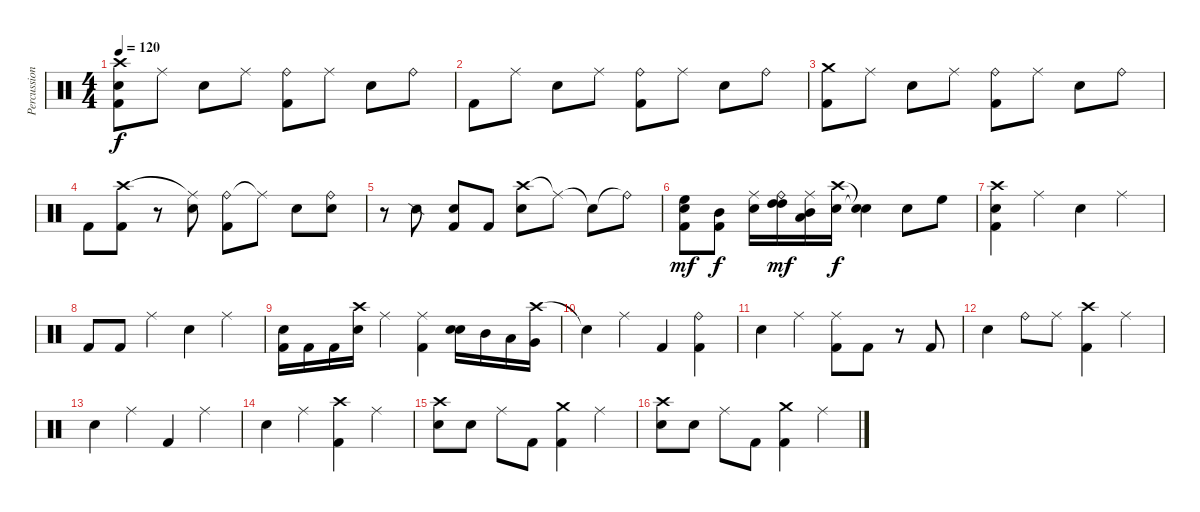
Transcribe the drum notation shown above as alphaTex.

\track ("Percussioni" "Percussion") {instrument percussion}
\staff {score}
\articulation defaults
\ts (4 4)
\tempo 120
\clef neutral
\ks c
("Crash high (hit)" "Electric Snare (hit)" "Kick (hit) 2").8{dy f} "Ride (middle)".8 "Electric Snare (hit)".8 "Ride (middle)".8 ("Ride (bell)" "Kick (hit) 2").8 "Ride (middle)".8 "Electric Snare (hit)".8 "Ride (bell)".8 |
"Kick (hit) 2".8 "Ride (middle)".8 "Electric Snare (hit)".8 "Ride (middle)".8 ("Ride (bell)" "Kick (hit) 2").8 "Ride (middle)".8 "Electric Snare (hit)".8 "Ride (bell)".8 |
("Crash medium (hit)" "Kick (hit) 2").8 "Ride (middle)".8 "Electric Snare (hit)".8 "Ride (middle)".8 ("Ride (bell)" "Kick (hit) 2").8 "Ride (middle)".8 "Electric Snare (hit)".8 "Ride (bell)".8 |
"Kick (hit) 2".8 ("Crash high (hit)" "Kick (hit) 2").8 r.8 ("Ride (middle)"{t} "Electric Snare (hit)").8 ("Ride (bell)" "Kick (hit) 2").8 "Ride (middle)"{t}.8 "Electric Snare (hit)".8 ("Ride (bell)" "Electric Snare (hit)").8 |
r.8 "Snare (side stick) 2".8 ("Electric Snare (hit)" "Kick (hit) 2").8{bd 240} "Kick (hit) 2".8 ("Crash high (hit)" "Electric Snare (hit)").8 "Ride (middle)"{t}.8 "Electric Snare (hit)"{t}.8 "Ride (bell)"{t}.8 |
("Electric Snare (hit)" "High Floor Tom (hit)" "Kick (hit) 2").8{bd 30 dy mf} ("Mid Tom (hit)" "Kick (hit) 2").8{bd 240 dy f} ("Electric Snare (hit)" "Ride (middle)").16 ("High Tom (hit)" "High Tom (hit)" "Ride (bell)").16{dy mf} ("Low Tom (hit)" "Mid Tom (hit)" "Ride (middle)").16 ("Crash high (hit)" "Electric Snare (hit)").16{dy f} ("Snare (hit)"{t} "Snare (hit)"{t}).4 "Electric Snare (hit)".8 "High Floor Tom (hit)".8 |
("Kick (hit) 2" "Crash high (hit)" "Electric Snare (hit)").4 "Ride (middle)".4 "Electric Snare (hit)".4 "Ride (middle)".4 |
"Kick (hit) 2".8 "Kick (hit) 2".8 "Ride (middle)".4 "Electric Snare (hit)".4 "Ride (middle)".4 |
("Electric Snare (hit)" "Kick (hit) 2").16 "Kick (hit) 2".16 "Kick (hit) 2".16 ("Crash high (hit)" "Electric Snare (hit)").16 "Ride (middle)".4 ("Ride (middle)" "Kick (hit) 2").4 ("Electric Snare (hit)" "Electric Snare (hit)").16{bd 120} "Mid Tom (hit)".16 "Low Tom (hit)".16 ("Crash high (hit)" "Very Low Tom (hit)").16 |
"Electric Snare (hit)"{t}.4 "Ride (middle)".4 "Kick (hit) 2".4 ("Ride (bell)" "Kick (hit) 2").4 |
"Electric Snare (hit)".4 "Ride (middle)".4 ("Ride (middle)" "Kick (hit) 2").8 "Kick (hit) 2".8 r.8 "Kick (hit) 2".8 |
"Electric Snare (hit)".4 "Ride (bell)".8 "Ride (middle)".8 ("Crash high (hit)" "Kick (hit) 2").4 "Ride (middle)".4 |
"Electric Snare (hit)".4 "Ride (middle)".4 "Kick (hit) 2".4 "Ride (middle)".4 |
"Electric Snare (hit)".4 "Ride (middle)".4 ("Crash high (hit)" "Kick (hit) 2").4 "Ride (middle)".4 |
("Crash high (hit)" "Electric Snare (hit)").8 "Electric Snare (hit)".8 "Ride (middle)".8 "Kick (hit) 2".8 ("Crash medium (hit)" "Kick (hit) 2").4 "Ride (middle)".4 |
("Crash high (hit)" "Electric Snare (hit)").8 "Electric Snare (hit)".8 "Ride (middle)".8 "Kick (hit) 2".8 ("Crash medium (hit)" "Kick (hit) 2").4 "Ride (middle)".4
